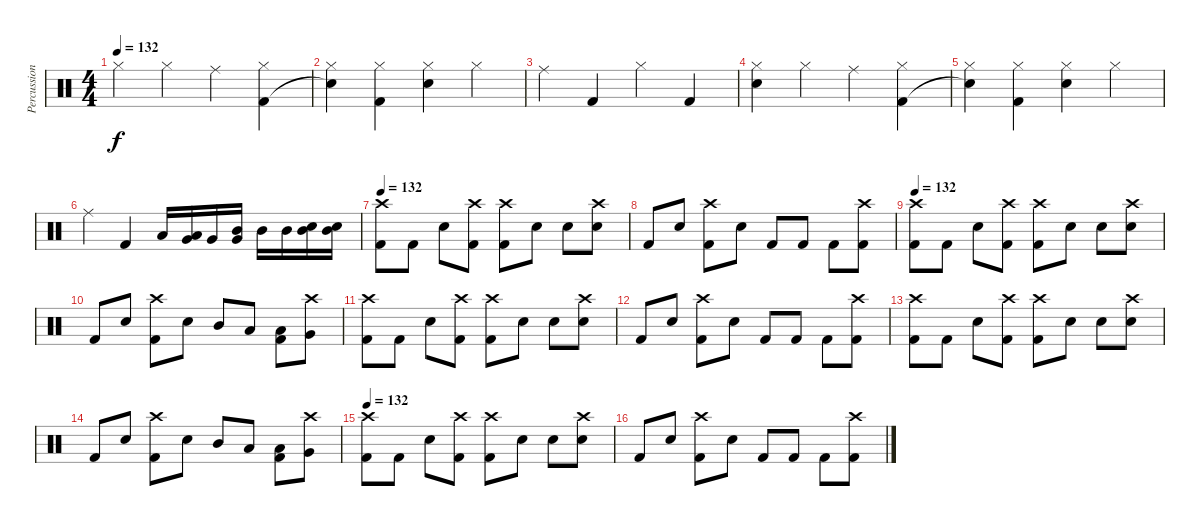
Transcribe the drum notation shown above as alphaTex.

\track ("Percussion" "Percussion") {instrument percussion}
\staff {score}
\articulation defaults
\ts (4 4)
\tempo 132
\clef neutral
\ks c "Hi-Hat (closed)".4{dy f} "Hi-Hat (closed)".4 "Ride (middle)".4
("Hi-Hat (closed)" "Kick (hit) 2").4 |
("Hi-Hat (closed)" "Snare (hit)"{t}).4 ("Hi-Hat (closed)" "Kick (hit) 2").4 ("Hi-Hat (closed)" "Electric Snare (hit)").4 "Hi-Hat (closed)".4 |
"Ride (middle)".4 "Kick (hit) 2".4 "Hi-Hat (closed)".4 "Kick (hit) 2".4 |
("Hi-Hat (closed)" "Electric Snare (hit)").4 "Hi-Hat (closed)".4 "Ride (middle)".4 ("Hi-Hat (closed)" "Kick (hit) 2").4 |
("Hi-Hat (closed)" "Snare (hit)"{t}).4 ("Hi-Hat (closed)" "Kick (hit) 2").4 ("Hi-Hat (closed)" "Electric Snare (hit)").4 "Hi-Hat (closed)".4 |
"Ride (middle)".4 "Kick (hit) 2".4 "Low Tom (hit)".16 ("Very Low Tom (hit)" "Low Tom (hit)").16 "Very Low Tom (hit)".16 ("Mid Tom (hit)" "Very Low Tom (hit)").16 "Mid Tom (hit)".16 "Mid Tom (hit)".16 ("Mid Tom (hit)" "Electric Snare (hit)").16 ("Mid Tom (hit)" "Electric Snare (hit)").16 |
\tempo 132
("Crash high (hit)" "Kick (hit) 2").8 "Kick (hit) 2".8 "Electric Snare (hit)".8 ("Crash high (hit)" "Kick (hit) 2").8 ("Crash high (hit)" "Kick (hit) 2").8 "Electric Snare (hit)".8 "Electric Snare (hit)".8 ("Crash high (hit)" "Electric Snare (hit)").8 |
"Kick (hit) 2".8 "Electric Snare (hit)".8 ("Crash high (hit)" "Kick (hit) 2").8 "Electric Snare (hit)".8 "Kick (hit) 2".8 "Kick (hit) 2".8 "Kick (hit) 2".8 ("Crash high (hit)" "Kick (hit) 2").8 |
\tempo 132
("Crash high (hit)" "Kick (hit) 2").8 "Kick (hit) 2".8 "Electric Snare (hit)".8 ("Crash high (hit)" "Kick (hit) 2").8 ("Crash high (hit)" "Kick (hit) 2").8 "Electric Snare (hit)".8 "Electric Snare (hit)".8 ("Crash high (hit)" "Electric Snare (hit)").8 |
"Kick (hit) 2".8 "Electric Snare (hit)".8 ("Crash high (hit)" "Kick (hit) 2").8 "Electric Snare (hit)".8 "Mid Tom (hit)".8 "Low Tom (hit)".8 ("Kick (hit) 2" "Low Tom (hit)").8 ("Crash high (hit)" "Very Low Tom (hit)").8 |
("Crash high (hit)" "Kick (hit) 2").8 "Kick (hit) 2".8 "Electric Snare (hit)".8 ("Crash high (hit)" "Kick (hit) 2").8 ("Crash high (hit)" "Kick (hit) 2").8 "Electric Snare (hit)".8 "Electric Snare (hit)".8 ("Crash high (hit)" "Electric Snare (hit)").8 |
"Kick (hit) 2".8 "Electric Snare (hit)".8 ("Crash high (hit)" "Kick (hit) 2").8 "Electric Snare (hit)".8 "Kick (hit) 2".8 "Kick (hit) 2".8 "Kick (hit) 2".8 ("Crash high (hit)" "Kick (hit) 2").8 |
("Crash high (hit)" "Kick (hit) 2").8 "Kick (hit) 2".8 "Electric Snare (hit)".8 ("Crash high (hit)" "Kick (hit) 2").8 ("Crash high (hit)" "Kick (hit) 2").8 "Electric Snare (hit)".8 "Electric Snare (hit)".8 ("Crash high (hit)" "Electric Snare (hit)").8 |
"Kick (hit) 2".8 "Electric Snare (hit)".8 ("Crash high (hit)" "Kick (hit) 2").8 "Electric Snare (hit)".8 "Mid Tom (hit)".8 "Low Tom (hit)".8 ("Kick (hit) 2" "Low Tom (hit)").8 ("Crash high (hit)" "Very Low Tom (hit)").8 |
\tempo 132
("Crash high (hit)" "Kick (hit) 2").8 "Kick (hit) 2".8 "Electric Snare (hit)".8 ("Crash high (hit)" "Kick (hit) 2").8 ("Crash high (hit)" "Kick (hit) 2").8 "Electric Snare (hit)".8 "Electric Snare (hit)".8 ("Crash high (hit)" "Electric Snare (hit)").8 |
"Kick (hit) 2".8 "Electric Snare (hit)".8 ("Crash high (hit)" "Kick (hit) 2").8 "Electric Snare (hit)".8 "Kick (hit) 2".8 "Kick (hit) 2".8 "Kick (hit) 2".8 ("Crash high (hit)" "Kick (hit) 2").8
